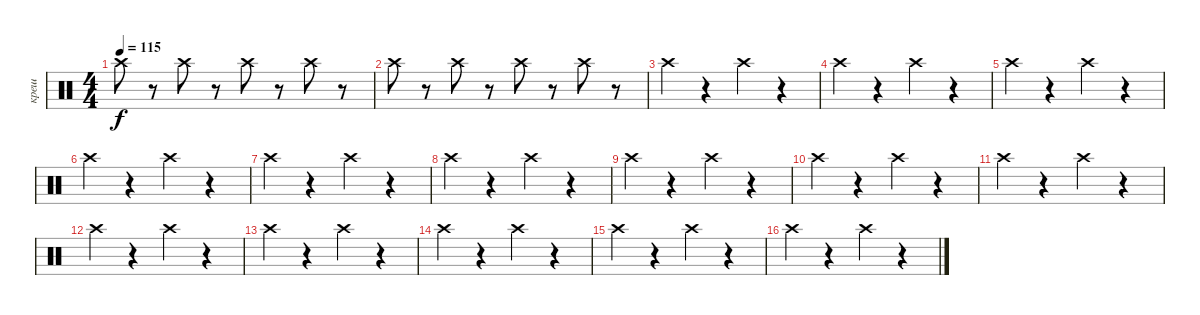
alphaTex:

\track ("креш" "креш") {mute instrument percussion}
\staff {score}
\articulation defaults
\ts (4 4)
\tempo 115
\clef neutral
\ks c "Crash high (hit)".8{dy f}
r.8 "Crash high (hit)".8 r.8 "Crash high (hit)".8 r.8 "Crash high (hit)".8 r.8 |
"Crash high (hit)".8 r.8 "Crash high (hit)".8 r.8 "Crash high (hit)".8 r.8 "Crash high (hit)".8 r.8 |
"Crash high (hit)".4 r.4 "Crash high (hit)".4 r.4 |
"Crash high (hit)".4 r.4 "Crash high (hit)".4 r.4 |
"Crash high (hit)".4 r.4 "Crash high (hit)".4 r.4 |
"Crash high (hit)".4 r.4 "Crash high (hit)".4 r.4 |
"Crash high (hit)".4 r.4 "Crash high (hit)".4 r.4 |
"Crash high (hit)".4 r.4 "Crash high (hit)".4 r.4 |
"Crash high (hit)".4 r.4 "Crash high (hit)".4 r.4 |
"Crash high (hit)".4 r.4 "Crash high (hit)".4 r.4 |
"Crash high (hit)".4 r.4 "Crash high (hit)".4 r.4 |
"Crash high (hit)".4 r.4 "Crash high (hit)".4 r.4 |
"Crash high (hit)".4 r.4 "Crash high (hit)".4 r.4 |
"Crash high (hit)".4 r.4 "Crash high (hit)".4 r.4 |
"Crash high (hit)".4 r.4 "Crash high (hit)".4 r.4 |
"Crash high (hit)".4 r.4 "Crash high (hit)".4 r.4
